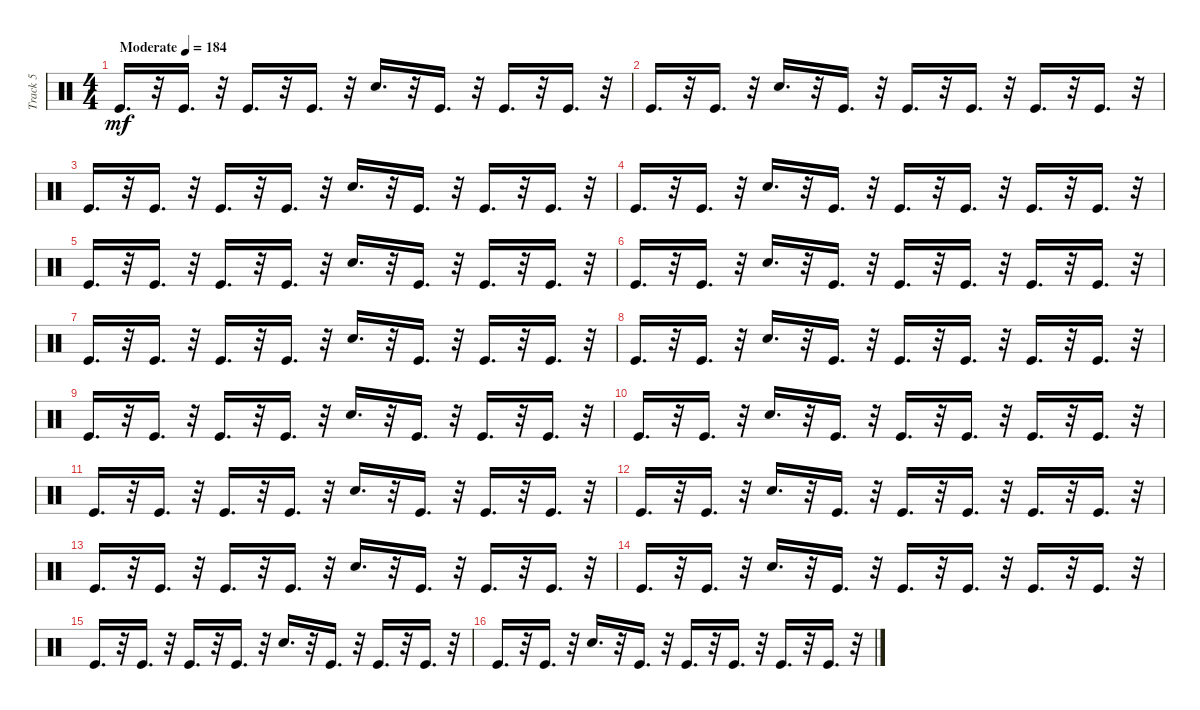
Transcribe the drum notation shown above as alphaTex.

\track ("Track 5" "Track 5") {instrument percussion}
\staff {score}
\articulation defaults
\ts (4 4)
\tempo (184 "Moderate")
\clef neutral
\ks c "Kick (hit)".16{d dy mf}
r.32 "Kick (hit)".16{d} r.32 "Kick (hit)".16{d} r.32 "Kick (hit)".16{d} r.32 "Snare (hit) 2".16{d} r.32 "Kick (hit)".16{d} r.32 "Kick (hit)".16{d} r.32 "Kick (hit)".16{d} r.32 |
"Kick (hit)".16{d} r.32 "Kick (hit)".16{d} r.32 "Snare (hit) 2".16{d} r.32 "Kick (hit)".16{d} r.32 "Kick (hit)".16{d} r.32 "Kick (hit)".16{d} r.32 "Kick (hit)".16{d} r.32 "Kick (hit)".16{d} r.32 |
"Kick (hit)".16{d} r.32 "Kick (hit)".16{d} r.32 "Kick (hit)".16{d} r.32 "Kick (hit)".16{d} r.32 "Snare (hit) 2".16{d} r.32 "Kick (hit)".16{d} r.32 "Kick (hit)".16{d} r.32 "Kick (hit)".16{d} r.32 |
"Kick (hit)".16{d} r.32 "Kick (hit)".16{d} r.32 "Snare (hit) 2".16{d} r.32 "Kick (hit)".16{d} r.32 "Kick (hit)".16{d} r.32 "Kick (hit)".16{d} r.32 "Kick (hit)".16{d} r.32 "Kick (hit)".16{d} r.32 |
"Kick (hit)".16{d} r.32 "Kick (hit)".16{d} r.32 "Kick (hit)".16{d} r.32 "Kick (hit)".16{d} r.32 "Snare (hit) 2".16{d} r.32 "Kick (hit)".16{d} r.32 "Kick (hit)".16{d} r.32 "Kick (hit)".16{d} r.32 |
"Kick (hit)".16{d} r.32 "Kick (hit)".16{d} r.32 "Snare (hit) 2".16{d} r.32 "Kick (hit)".16{d} r.32 "Kick (hit)".16{d} r.32 "Kick (hit)".16{d} r.32 "Kick (hit)".16{d} r.32 "Kick (hit)".16{d} r.32 |
"Kick (hit)".16{d} r.32 "Kick (hit)".16{d} r.32 "Kick (hit)".16{d} r.32 "Kick (hit)".16{d} r.32 "Snare (hit) 2".16{d} r.32 "Kick (hit)".16{d} r.32 "Kick (hit)".16{d} r.32 "Kick (hit)".16{d} r.32 |
"Kick (hit)".16{d} r.32 "Kick (hit)".16{d} r.32 "Snare (hit) 2".16{d} r.32 "Kick (hit)".16{d} r.32 "Kick (hit)".16{d} r.32 "Kick (hit)".16{d} r.32 "Kick (hit)".16{d} r.32 "Kick (hit)".16{d} r.32 |
"Kick (hit)".16{d} r.32 "Kick (hit)".16{d} r.32 "Kick (hit)".16{d} r.32 "Kick (hit)".16{d} r.32 "Snare (hit) 2".16{d} r.32 "Kick (hit)".16{d} r.32 "Kick (hit)".16{d} r.32 "Kick (hit)".16{d} r.32 |
"Kick (hit)".16{d} r.32 "Kick (hit)".16{d} r.32 "Snare (hit) 2".16{d} r.32 "Kick (hit)".16{d} r.32 "Kick (hit)".16{d} r.32 "Kick (hit)".16{d} r.32 "Kick (hit)".16{d} r.32 "Kick (hit)".16{d} r.32 |
"Kick (hit)".16{d} r.32 "Kick (hit)".16{d} r.32 "Kick (hit)".16{d} r.32 "Kick (hit)".16{d} r.32 "Snare (hit) 2".16{d} r.32 "Kick (hit)".16{d} r.32 "Kick (hit)".16{d} r.32 "Kick (hit)".16{d} r.32 |
"Kick (hit)".16{d} r.32 "Kick (hit)".16{d} r.32 "Snare (hit) 2".16{d} r.32 "Kick (hit)".16{d} r.32 "Kick (hit)".16{d} r.32 "Kick (hit)".16{d} r.32 "Kick (hit)".16{d} r.32 "Kick (hit)".16{d} r.32 |
"Kick (hit)".16{d} r.32 "Kick (hit)".16{d} r.32 "Kick (hit)".16{d} r.32 "Kick (hit)".16{d} r.32 "Snare (hit) 2".16{d} r.32 "Kick (hit)".16{d} r.32 "Kick (hit)".16{d} r.32 "Kick (hit)".16{d} r.32 |
"Kick (hit)".16{d} r.32 "Kick (hit)".16{d} r.32 "Snare (hit) 2".16{d} r.32 "Kick (hit)".16{d} r.32 "Kick (hit)".16{d} r.32 "Kick (hit)".16{d} r.32 "Kick (hit)".16{d} r.32 "Kick (hit)".16{d} r.32 |
"Kick (hit)".16{d} r.32 "Kick (hit)".16{d} r.32 "Kick (hit)".16{d} r.32 "Kick (hit)".16{d} r.32 "Snare (hit) 2".16{d} r.32 "Kick (hit)".16{d} r.32 "Kick (hit)".16{d} r.32 "Kick (hit)".16{d} r.32 |
"Kick (hit)".16{d} r.32 "Kick (hit)".16{d} r.32 "Snare (hit) 2".16{d} r.32 "Kick (hit)".16{d} r.32 "Kick (hit)".16{d} r.32 "Kick (hit)".16{d} r.32 "Kick (hit)".16{d} r.32 "Kick (hit)".16{d} r.32
